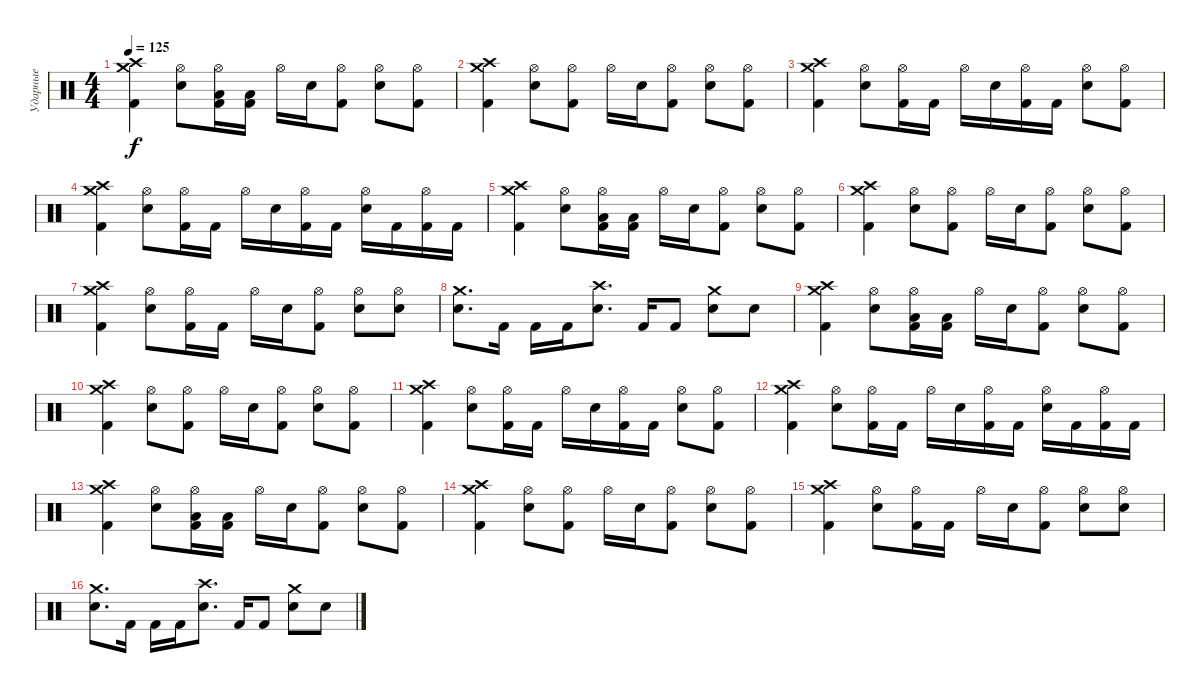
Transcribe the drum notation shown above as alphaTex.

\track ("Ударные" "Ударные") {instrument percussion}
\staff {score}
\articulation defaults
\ts (4 4)
\tempo 125
\clef neutral
\ks c
("Crash high (hit)" "Crash medium (hit)" "Kick (hit) 2").4{dy f} ("Hi-Hat (open)" "Snare (hit) 2").8 ("Hi-Hat (open)" "Low Tom (hit)" "Kick (hit) 2").16 ("Low Floor Tom (hit)" "Kick (hit) 2").16 "Hi-Hat (open)".16 "Snare (hit) 2".16 ("Hi-Hat (open)" "Kick (hit) 2").8 ("Hi-Hat (open)" "Snare (hit) 2").8 ("Hi-Hat (open)" "Kick (hit) 2").8 |
("Crash medium (hit)" "Crash high (hit)" "Kick (hit) 2").4 ("Hi-Hat (open)" "Snare (hit) 2").8 ("Hi-Hat (open)" "Kick (hit) 2").8 "Hi-Hat (open)".16 "Snare (hit) 2".16 ("Hi-Hat (open)" "Kick (hit) 2").8 ("Hi-Hat (open)" "Snare (hit) 2").8 ("Hi-Hat (open)" "Kick (hit) 2").8 |
("Crash high (hit)" "Crash medium (hit)" "Kick (hit) 2").4 ("Hi-Hat (open)" "Snare (hit) 2").8 ("Hi-Hat (open)" "Kick (hit) 2").16 "Kick (hit) 2".16 "Hi-Hat (open)".16 "Snare (hit) 2".16 ("Hi-Hat (open)" "Kick (hit) 2").16 "Kick (hit) 2".16 ("Hi-Hat (open)" "Snare (hit) 2").8 ("Hi-Hat (open)" "Kick (hit) 2").8 |
("Crash high (hit)" "Crash medium (hit)" "Kick (hit) 2").4 ("Hi-Hat (open)" "Snare (hit) 2").8 ("Hi-Hat (open)" "Kick (hit) 2").16 "Kick (hit) 2".16 "Hi-Hat (open)".16 "Snare (hit) 2".16 ("Hi-Hat (open)" "Kick (hit) 2").16 "Kick (hit) 2".16 ("Hi-Hat (open)" "Snare (hit) 2").16 "Kick (hit) 2".16 ("Hi-Hat (open)" "Kick (hit) 2").16 "Kick (hit) 2".16 |
("Crash high (hit)" "Crash medium (hit)" "Kick (hit) 2").4 ("Hi-Hat (open)" "Snare (hit) 2").8 ("Hi-Hat (open)" "Low Tom (hit)" "Kick (hit) 2").16 ("Low Floor Tom (hit)" "Kick (hit) 2").16 "Hi-Hat (open)".16 "Snare (hit) 2".16 ("Hi-Hat (open)" "Kick (hit) 2").8 ("Hi-Hat (open)" "Snare (hit) 2").8 ("Hi-Hat (open)" "Kick (hit) 2").8 |
("Crash medium (hit)" "Crash high (hit)" "Kick (hit) 2").4 ("Hi-Hat (open)" "Snare (hit) 2").8 ("Hi-Hat (open)" "Kick (hit) 2").8 "Hi-Hat (open)".16 "Snare (hit) 2".16 ("Hi-Hat (open)" "Kick (hit) 2").8 ("Hi-Hat (open)" "Snare (hit) 2").8 ("Hi-Hat (open)" "Kick (hit) 2").8 |
("Crash high (hit)" "Crash medium (hit)" "Kick (hit) 2").4 ("Hi-Hat (open)" "Snare (hit) 2").8 ("Hi-Hat (open)" "Kick (hit) 2").16 "Kick (hit) 2".16 "Hi-Hat (open)".16 "Snare (hit) 2".16 ("Hi-Hat (open)" "Kick (hit) 2").8 ("Hi-Hat (open)" "Snare (hit) 2").8 ("Hi-Hat (open)" "Snare (hit) 2").8 |
("Crash medium (hit)" "Snare (hit) 2").8{d} "Kick (hit) 2".16 "Kick (hit) 2".16 "Kick (hit) 2".16 ("Crash high (hit)" "Snare (hit) 2").8{d} "Kick (hit) 2".16 "Kick (hit) 2".8 ("Crash medium (hit)" "Snare (hit) 2").8 "Snare (hit) 2".8 |
("Crash high (hit)" "Crash medium (hit)" "Kick (hit) 2").4 ("Hi-Hat (open)" "Snare (hit) 2").8 ("Hi-Hat (open)" "Low Tom (hit)" "Kick (hit) 2").16 ("Low Floor Tom (hit)" "Kick (hit) 2").16 "Hi-Hat (open)".16 "Snare (hit) 2".16 ("Hi-Hat (open)" "Kick (hit) 2").8 ("Hi-Hat (open)" "Snare (hit) 2").8 ("Hi-Hat (open)" "Kick (hit) 2").8 |
("Crash medium (hit)" "Crash high (hit)" "Kick (hit) 2").4 ("Hi-Hat (open)" "Snare (hit) 2").8 ("Hi-Hat (open)" "Kick (hit) 2").8 "Hi-Hat (open)".16 "Snare (hit) 2".16 ("Hi-Hat (open)" "Kick (hit) 2").8 ("Hi-Hat (open)" "Snare (hit) 2").8 ("Hi-Hat (open)" "Kick (hit) 2").8 |
("Crash high (hit)" "Crash medium (hit)" "Kick (hit) 2").4 ("Hi-Hat (open)" "Snare (hit) 2").8 ("Hi-Hat (open)" "Kick (hit) 2").16 "Kick (hit) 2".16 "Hi-Hat (open)".16 "Snare (hit) 2".16 ("Hi-Hat (open)" "Kick (hit) 2").16 "Kick (hit) 2".16 ("Hi-Hat (open)" "Snare (hit) 2").8 ("Hi-Hat (open)" "Kick (hit) 2").8 |
("Crash high (hit)" "Crash medium (hit)" "Kick (hit) 2").4 ("Hi-Hat (open)" "Snare (hit) 2").8 ("Hi-Hat (open)" "Kick (hit) 2").16 "Kick (hit) 2".16 "Hi-Hat (open)".16 "Snare (hit) 2".16 ("Hi-Hat (open)" "Kick (hit) 2").16 "Kick (hit) 2".16 ("Hi-Hat (open)" "Snare (hit) 2").16 "Kick (hit) 2".16 ("Hi-Hat (open)" "Kick (hit) 2").16 "Kick (hit) 2".16 |
("Crash high (hit)" "Crash medium (hit)" "Kick (hit) 2").4 ("Hi-Hat (open)" "Snare (hit) 2").8 ("Hi-Hat (open)" "Low Tom (hit)" "Kick (hit) 2").16 ("Low Floor Tom (hit)" "Kick (hit) 2").16 "Hi-Hat (open)".16 "Snare (hit) 2".16 ("Hi-Hat (open)" "Kick (hit) 2").8 ("Hi-Hat (open)" "Snare (hit) 2").8 ("Hi-Hat (open)" "Kick (hit) 2").8 |
("Crash medium (hit)" "Crash high (hit)" "Kick (hit) 2").4 ("Hi-Hat (open)" "Snare (hit) 2").8 ("Hi-Hat (open)" "Kick (hit) 2").8 "Hi-Hat (open)".16 "Snare (hit) 2".16 ("Hi-Hat (open)" "Kick (hit) 2").8 ("Hi-Hat (open)" "Snare (hit) 2").8 ("Hi-Hat (open)" "Kick (hit) 2").8 |
("Crash high (hit)" "Crash medium (hit)" "Kick (hit) 2").4 ("Hi-Hat (open)" "Snare (hit) 2").8 ("Hi-Hat (open)" "Kick (hit) 2").16 "Kick (hit) 2".16 "Hi-Hat (open)".16 "Snare (hit) 2".16 ("Hi-Hat (open)" "Kick (hit) 2").8 ("Hi-Hat (open)" "Snare (hit) 2").8 ("Hi-Hat (open)" "Snare (hit) 2").8 |
("Crash medium (hit)" "Snare (hit) 2").8{d} "Kick (hit) 2".16 "Kick (hit) 2".16 "Kick (hit) 2".16 ("Crash high (hit)" "Snare (hit) 2").8{d} "Kick (hit) 2".16 "Kick (hit) 2".8 ("Crash medium (hit)" "Snare (hit) 2").8 "Snare (hit) 2".8
